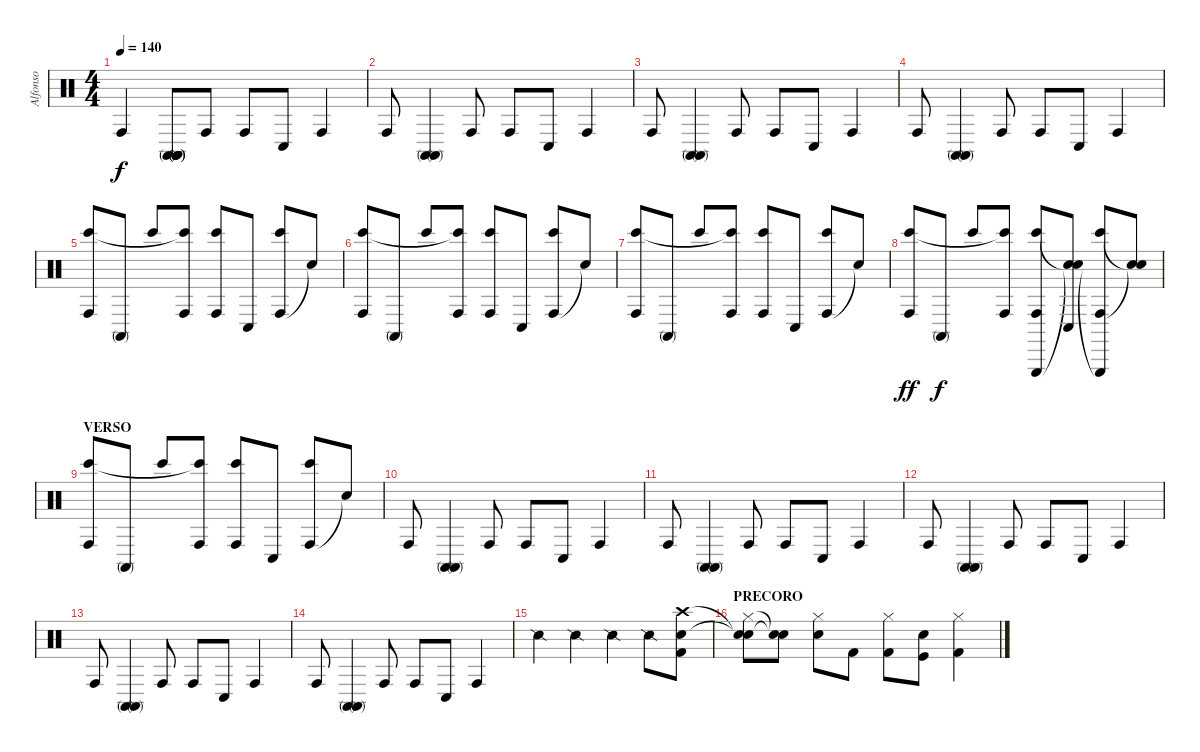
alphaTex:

\track ("Alfonso" "Alfonso") {instrument percussion}
\staff {score}
\articulation defaults
\ts (4 4)
\tempo 140
\clef neutral
\ks c "Conga high (hit)".4{dy f}
("Conga high (mute)" "Conga high (mute)" "Conga high (mute)" "Conga high (mute)").8 "Conga high (hit)".8 "Conga high (hit)".8 "Conga low (hit)".8 "Conga high (hit)".4 |
"Conga high (hit)".8 ("Conga high (mute)" "Conga high (mute)").4 "Conga high (hit)".8 "Conga high (hit)".8 "Conga low (hit)".8 "Conga high (hit)".4 |
"Conga high (hit)".8 ("Conga high (mute)" "Conga high (mute)").4 "Conga high (hit)".8 "Conga high (hit)".8 "Conga low (hit)".8 "Conga high (hit)".4 |
"Conga high (hit)".8 ("Conga high (mute)" "Conga high (mute)").4 "Conga high (hit)".8 "Conga high (hit)".8 "Conga low (hit)".8 "Conga high (hit)".4 |
("Conga high (hit)" "Bongo High (hit)").8 "Conga high (mute)".8 "Bongo High (hit)".8 ("Conga high (hit)" "Bongo High (hit)"{t}).8 ("Conga high (hit)" "Bongo High (hit)").8 "Conga low (hit)".8 ("Conga high (hit)" "Bongo High (hit)").8 "Snare (hit)"{t}.8 |
("Conga high (hit)" "Bongo High (hit)").8 "Conga high (mute)".8 "Bongo High (hit)".8 ("Conga high (hit)" "Bongo High (hit)"{t}).8 ("Conga high (hit)" "Bongo High (hit)").8 "Conga low (hit)".8 ("Conga high (hit)" "Bongo High (hit)").8 "Snare (hit)"{t}.8 |
("Conga high (hit)" "Bongo High (hit)").8 "Conga high (mute)".8 "Bongo High (hit)".8 ("Conga high (hit)" "Bongo High (hit)"{t}).8 ("Conga high (hit)" "Bongo High (hit)").8 "Conga low (hit)".8 ("Conga high (hit)" "Bongo High (hit)").8 "Snare (hit)"{t}.8 |
("Conga high (hit)" "Bongo High (hit)").8{dy ff} "Conga high (mute)".8{dy f} "Bongo High (hit)".8 ("Conga high (hit)" "Bongo High (hit)"{t}).8 ("Conga high (hit)" "Bongo High (hit)" "Triangle (hit)").8 ("Conga low (hit)" "Snare (hit)"{t} "Snare (hit)"{t}).8 ("Conga high (hit)" "Bongo High (hit)" "Triangle (hit)"{t}).8 ("Snare (hit)"{t} "Snare (hit)"{t}).8 |
\section ("" "VERSO")
("Conga high (hit)" "Bongo High (hit)").8 "Conga high (mute)".8 "Bongo High (hit)".8 ("Conga high (hit)" "Bongo High (hit)"{t}).8 ("Conga high (hit)" "Bongo High (hit)").8 "Conga low (hit)".8 ("Conga high (hit)" "Bongo High (hit)").8 "Snare (hit)"{t}.8 |
"Conga high (hit)".8 ("Conga high (mute)" "Conga high (mute)").4 "Conga high (hit)".8 "Conga high (hit)".8 "Conga low (hit)".8 "Conga high (hit)".4 |
"Conga high (hit)".8 ("Conga high (mute)" "Conga high (mute)").4 "Conga high (hit)".8 "Conga high (hit)".8 "Conga low (hit)".8 "Conga high (hit)".4 |
"Conga high (hit)".8 ("Conga high (mute)" "Conga high (mute)").4 "Conga high (hit)".8 "Conga high (hit)".8 "Conga low (hit)".8 "Conga high (hit)".4 |
"Conga high (hit)".8 ("Conga high (mute)" "Conga high (mute)").4 "Conga high (hit)".8 "Conga high (hit)".8 "Conga low (hit)".8 "Conga high (hit)".4 |
"Conga high (hit)".8 ("Conga high (mute)" "Conga high (mute)").4 "Conga high (hit)".8 "Conga high (hit)".8 "Conga low (hit)".8 "Conga high (hit)".4 |
"Snare (side stick) 2".4 "Snare (side stick) 2".4 "Snare (side stick) 2".4 "Snare (side stick) 2".8 ("Kick (hit) 2" "Electric Snare (hit)" "Crash high (hit)").8 |
\section ("" "PRECORO")
("Hi-Hat (closed)" "Snare (hit)"{t} "Snare (hit)"{t}).8 ("Snare (hit)"{t} "Snare (hit)"{t}).8 ("Hi-Hat (closed)" "Electric Snare (hit)").8 "Kick (hit) 2".8 ("Hi-Hat (closed)" "Kick (hit) 2").8 ("Electric Snare (hit)" "Kick (hit)").8 ("Hi-Hat (closed)" "Kick (hit) 2").4
